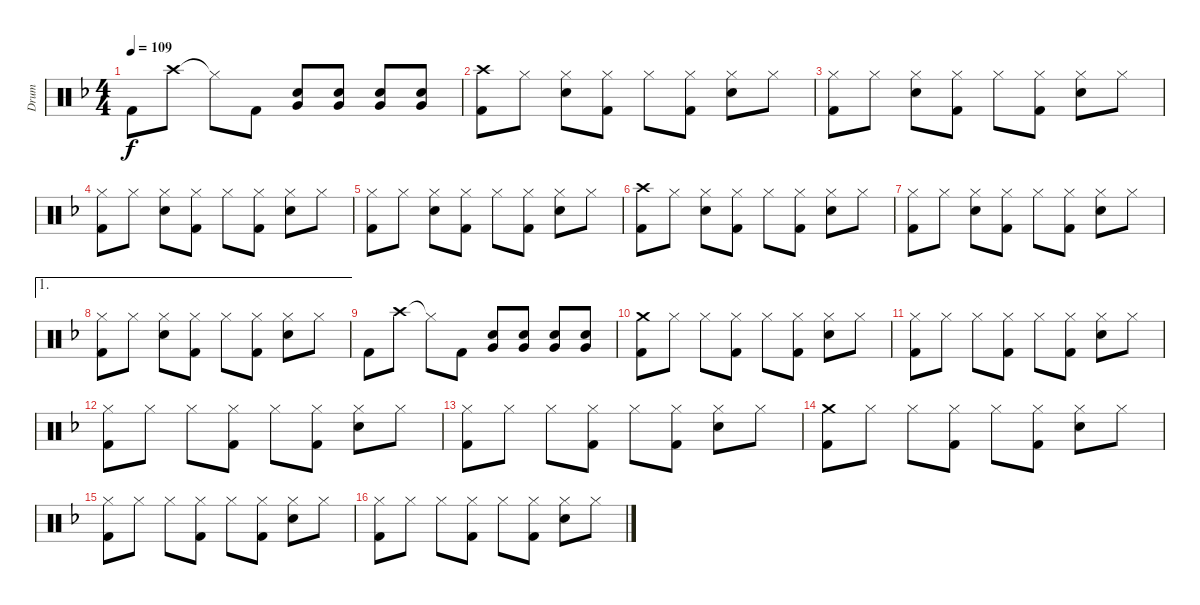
\track ("Drum" "Drum") {instrument percussion}
\staff {score}
\articulation defaults
\ts (4 4)
\tempo 109
\clef neutral
\ks f "Kick (hit) 2".8{dy f} "Crash high (hit)".8 "Hi-Hat (closed)"{t}.8 "Kick (hit) 2".8
("Very Low Tom (hit)" "Electric Snare (hit)").8 ("Very Low Tom (hit)" "Electric Snare (hit)").8 ("Very Low Tom (hit)" "Electric Snare (hit)").8 ("Very Low Tom (hit)" "Electric Snare (hit)").8 |
("Crash high (hit)" "Kick (hit) 2").8 "Hi-Hat (closed)".8 ("Hi-Hat (closed)" "Electric Snare (hit)").8 ("Hi-Hat (closed)" "Kick (hit) 2").8 "Hi-Hat (closed)".8 ("Hi-Hat (closed)" "Kick (hit) 2").8 ("Hi-Hat (closed)" "Electric Snare (hit)").8 "Hi-Hat (closed)".8 |
("Hi-Hat (closed)" "Kick (hit) 2").8 "Hi-Hat (closed)".8 ("Hi-Hat (closed)" "Electric Snare (hit)").8 ("Hi-Hat (closed)" "Kick (hit) 2").8 "Hi-Hat (closed)".8 ("Hi-Hat (closed)" "Kick (hit) 2").8 ("Hi-Hat (closed)" "Electric Snare (hit)").8 "Hi-Hat (closed)".8 |
("Hi-Hat (closed)" "Kick (hit) 2").8 "Hi-Hat (closed)".8 ("Hi-Hat (closed)" "Electric Snare (hit)").8 ("Hi-Hat (closed)" "Kick (hit) 2").8 "Hi-Hat (closed)".8 ("Hi-Hat (closed)" "Kick (hit) 2").8 ("Hi-Hat (closed)" "Electric Snare (hit)").8 "Hi-Hat (closed)".8 |
("Hi-Hat (closed)" "Kick (hit) 2").8 "Hi-Hat (closed)".8 ("Hi-Hat (closed)" "Electric Snare (hit)").8 ("Hi-Hat (closed)" "Kick (hit) 2").8 "Hi-Hat (closed)".8 ("Hi-Hat (closed)" "Kick (hit) 2").8 ("Hi-Hat (closed)" "Electric Snare (hit)").8 "Hi-Hat (closed)".8 |
("Crash high (hit)" "Kick (hit) 2").8 "Hi-Hat (closed)".8 ("Hi-Hat (closed)" "Electric Snare (hit)").8 ("Hi-Hat (closed)" "Kick (hit) 2").8 "Hi-Hat (closed)".8 ("Hi-Hat (closed)" "Kick (hit) 2").8 ("Hi-Hat (closed)" "Electric Snare (hit)").8 "Hi-Hat (closed)".8 |
("Hi-Hat (closed)" "Kick (hit) 2").8 "Hi-Hat (closed)".8 ("Hi-Hat (closed)" "Electric Snare (hit)").8 ("Hi-Hat (closed)" "Kick (hit) 2").8 "Hi-Hat (closed)".8 ("Hi-Hat (closed)" "Kick (hit) 2").8 ("Hi-Hat (closed)" "Electric Snare (hit)").8 "Hi-Hat (closed)".8 |
\ae 1
("Hi-Hat (closed)" "Kick (hit) 2").8 "Hi-Hat (closed)".8 ("Hi-Hat (closed)" "Electric Snare (hit)").8 ("Hi-Hat (closed)" "Kick (hit) 2").8 "Hi-Hat (closed)".8 ("Hi-Hat (closed)" "Kick (hit) 2").8 ("Hi-Hat (closed)" "Electric Snare (hit)").8 "Hi-Hat (closed)".8 |
"Kick (hit) 2".8 "Crash high (hit)".8 "Hi-Hat (closed)"{t}.8 "Kick (hit) 2".8 ("Very Low Tom (hit)" "Electric Snare (hit)").8 ("Very Low Tom (hit)" "Electric Snare (hit)").8 ("Very Low Tom (hit)" "Electric Snare (hit)").8 ("Very Low Tom (hit)" "Electric Snare (hit)").8 |
("Crash medium (hit)" "Kick (hit) 2").8 "Hi-Hat (closed)".8 "Hi-Hat (closed)".8 ("Hi-Hat (closed)" "Kick (hit) 2").8 "Hi-Hat (closed)".8 ("Hi-Hat (closed)" "Kick (hit) 2").8 ("Hi-Hat (closed)" "Electric Snare (hit)").8 "Hi-Hat (closed)".8 |
("Hi-Hat (closed)" "Kick (hit) 2").8 "Hi-Hat (closed)".8 "Hi-Hat (closed)".8 ("Hi-Hat (closed)" "Kick (hit) 2").8 "Hi-Hat (closed)".8 ("Hi-Hat (closed)" "Kick (hit) 2").8 ("Hi-Hat (closed)" "Electric Snare (hit)").8 "Hi-Hat (closed)".8 |
("Hi-Hat (closed)" "Kick (hit) 2").8 "Hi-Hat (closed)".8 "Hi-Hat (closed)".8 ("Hi-Hat (closed)" "Kick (hit) 2").8 "Hi-Hat (closed)".8 ("Hi-Hat (closed)" "Kick (hit) 2").8 ("Hi-Hat (closed)" "Electric Snare (hit)").8 "Hi-Hat (closed)".8 |
("Hi-Hat (closed)" "Kick (hit) 2").8 "Hi-Hat (closed)".8 "Hi-Hat (closed)".8 ("Hi-Hat (closed)" "Kick (hit) 2").8 "Hi-Hat (closed)".8 ("Hi-Hat (closed)" "Kick (hit) 2").8 ("Hi-Hat (closed)" "Electric Snare (hit)").8 "Hi-Hat (closed)".8 |
("Crash medium (hit)" "Kick (hit) 2").8 "Hi-Hat (closed)".8 "Hi-Hat (closed)".8 ("Hi-Hat (closed)" "Kick (hit) 2").8 "Hi-Hat (closed)".8 ("Hi-Hat (closed)" "Kick (hit) 2").8 ("Hi-Hat (closed)" "Electric Snare (hit)").8 "Hi-Hat (closed)".8 |
("Hi-Hat (closed)" "Kick (hit) 2").8 "Hi-Hat (closed)".8 "Hi-Hat (closed)".8 ("Hi-Hat (closed)" "Kick (hit) 2").8 "Hi-Hat (closed)".8 ("Hi-Hat (closed)" "Kick (hit) 2").8 ("Hi-Hat (closed)" "Electric Snare (hit)").8 "Hi-Hat (closed)".8 |
("Hi-Hat (closed)" "Kick (hit) 2").8 "Hi-Hat (closed)".8 "Hi-Hat (closed)".8 ("Hi-Hat (closed)" "Kick (hit) 2").8 "Hi-Hat (closed)".8 ("Hi-Hat (closed)" "Kick (hit) 2").8 ("Hi-Hat (closed)" "Electric Snare (hit)").8 "Hi-Hat (closed)".8
